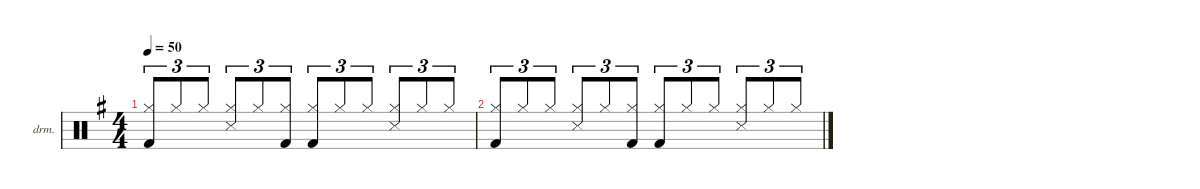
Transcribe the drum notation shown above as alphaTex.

\defaultSystemsLayout 4
\hideDynamics
\bracketExtendMode nobrackets
\firstSystemTrackNameOrientation horizontal
\otherSystemsTrackNameOrientation horizontal
\track ("Drumkit" "drm.") {defaultSystemsLayout 4 instrument percussion}
\staff {score}
\articulation defaults
\ts (4 4)
\tempo 50
\clef neutral
\ks g
("Hi-Hat (closed)"{acc forcenatural} "Kick (hit) 2"{acc forcenatural}).8{tu (3 2) dy mf beam Up} "Hi-Hat (closed)"{acc forcenatural}.8{tu (3 2) beam Up} "Hi-Hat (closed)"{acc forcenatural}.8{tu (3 2) beam Up} ("Hi-Hat (closed)"{acc forcenatural} "Snare (side stick) 3"{acc forcenatural}).8{tu (3 2) beam Up} "Hi-Hat (closed)"{acc forcenatural}.8{tu (3 2) beam Up} ("Hi-Hat (closed)"{acc forcenatural} "Kick (hit) 2"{acc forcenatural}).8{tu (3 2) beam Up} ("Hi-Hat (closed)"{acc forcenatural} "Kick (hit) 2"{acc forcenatural}).8{tu (3 2) beam Up} "Hi-Hat (closed)"{acc forcenatural}.8{tu (3 2) beam Up} "Hi-Hat (closed)"{acc forcenatural}.8{tu (3 2) beam Up} ("Hi-Hat (closed)"{acc forcenatural} "Snare (side stick) 3"{acc forcenatural}).8{tu (3 2) beam Up} "Hi-Hat (closed)"{acc forcenatural}.8{tu (3 2) beam Up} "Hi-Hat (closed)"{acc forcenatural}.8{tu (3 2) beam Up} |
("Hi-Hat (closed)"{acc forcenatural} "Kick (hit) 2"{acc forcenatural}).8{tu (3 2) beam Up} "Hi-Hat (closed)"{acc forcenatural}.8{tu (3 2) beam Up} "Hi-Hat (closed)"{acc forcenatural}.8{tu (3 2) beam Up} ("Hi-Hat (closed)"{acc forcenatural} "Snare (side stick) 3"{acc forcenatural}).8{tu (3 2) beam Up} "Hi-Hat (closed)"{acc forcenatural}.8{tu (3 2) beam Up} ("Hi-Hat (closed)"{acc forcenatural} "Kick (hit) 2"{acc forcenatural}).8{tu (3 2) beam Up} ("Hi-Hat (closed)"{acc forcenatural} "Kick (hit) 2"{acc forcenatural}).8{tu (3 2) beam Up} "Hi-Hat (closed)"{acc forcenatural}.8{tu (3 2) beam Up} "Hi-Hat (closed)"{acc forcenatural}.8{tu (3 2) beam Up} ("Hi-Hat (closed)"{acc forcenatural} "Snare (side stick) 3"{acc forcenatural}).8{tu (3 2) beam Up} "Hi-Hat (closed)"{acc forcenatural}.8{tu (3 2) beam Up} "Hi-Hat (closed)"{acc forcenatural}.8{tu (3 2) beam Up}
